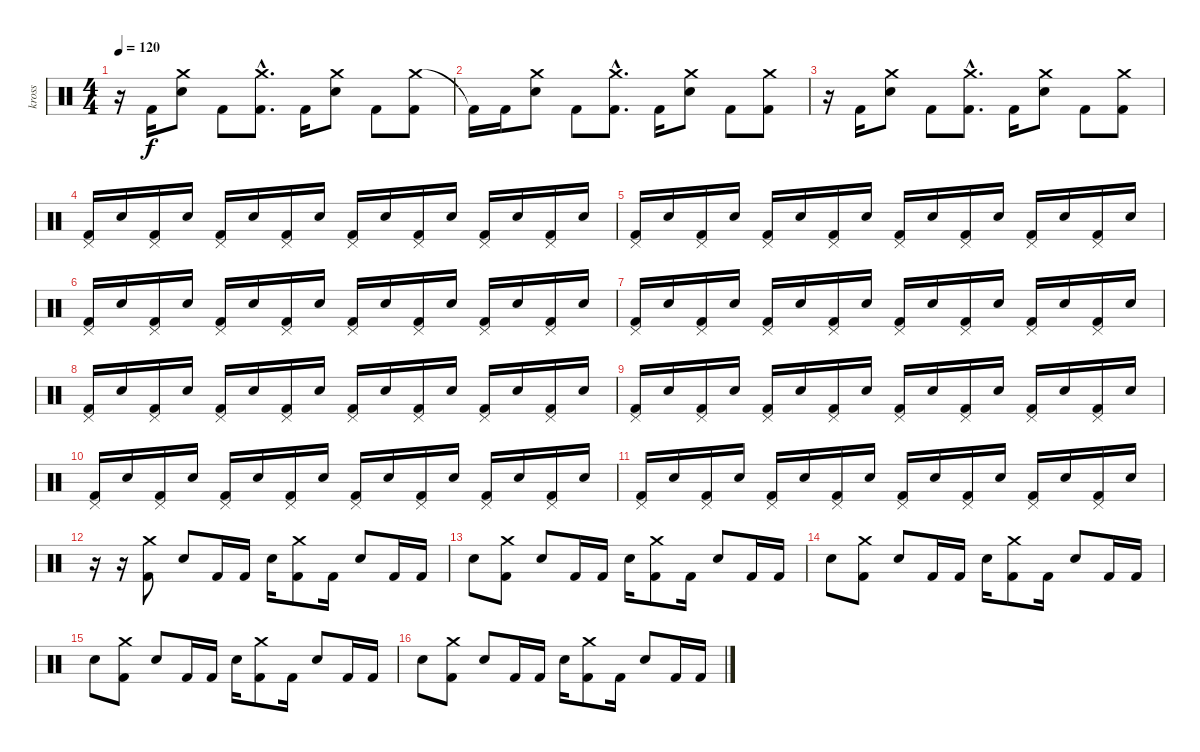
\track ("kross" "kross") {instrument percussion}
\staff {score}
\articulation defaults
\ts (4 4)
\tempo 120
\clef neutral
\ks c
r.16{dy f} "Kick (hit) 2".16 ("Crash medium (hit)" "Electric Snare (hit)").8 "Kick (hit) 2".8 ("Crash medium (hit)"{hac} "Kick (hit) 2"{hac}).8{d} "Kick (hit) 2".16 ("Crash medium (hit)" "Electric Snare (hit)").8 "Kick (hit) 2".8 ("Crash medium (hit)" "Kick (hit) 2").8 |
"Kick (hit) 2"{t}.16 "Kick (hit) 2".16 ("Crash medium (hit)" "Electric Snare (hit)").8 "Kick (hit) 2".8 ("Crash medium (hit)"{hac} "Kick (hit) 2"{hac}).8{d} "Kick (hit) 2".16 ("Crash medium (hit)" "Electric Snare (hit)").8 "Kick (hit) 2".8 ("Crash medium (hit)" "Kick (hit) 2").8 |
r.16 "Kick (hit) 2".16 ("Crash medium (hit)" "Electric Snare (hit)").8 "Kick (hit) 2".8 ("Crash medium (hit)"{hac} "Kick (hit) 2"{hac}).8{d} "Kick (hit) 2".16 ("Crash medium (hit)" "Electric Snare (hit)").8 "Kick (hit) 2".8 ("Crash medium (hit)" "Kick (hit) 2").8 |
("Pedal Hi-Hat (hit)" "Kick (hit) 2").16 "Electric Snare (hit)".16 ("Pedal Hi-Hat (hit)" "Kick (hit) 2").16 "Electric Snare (hit)".16 ("Pedal Hi-Hat (hit)" "Kick (hit) 2").16 "Electric Snare (hit)".16 ("Pedal Hi-Hat (hit)" "Kick (hit) 2").16 "Electric Snare (hit)".16 ("Pedal Hi-Hat (hit)" "Kick (hit) 2").16 "Electric Snare (hit)".16 ("Pedal Hi-Hat (hit)" "Kick (hit) 2").16 "Electric Snare (hit)".16 ("Pedal Hi-Hat (hit)" "Kick (hit) 2").16 "Electric Snare (hit)".16 ("Pedal Hi-Hat (hit)" "Kick (hit) 2").16 "Electric Snare (hit)".16 |
("Pedal Hi-Hat (hit)" "Kick (hit) 2").16 "Electric Snare (hit)".16 ("Pedal Hi-Hat (hit)" "Kick (hit) 2").16 "Electric Snare (hit)".16 ("Pedal Hi-Hat (hit)" "Kick (hit) 2").16 "Electric Snare (hit)".16 ("Pedal Hi-Hat (hit)" "Kick (hit) 2").16 "Electric Snare (hit)".16 ("Pedal Hi-Hat (hit)" "Kick (hit) 2").16 "Electric Snare (hit)".16 ("Pedal Hi-Hat (hit)" "Kick (hit) 2").16 "Electric Snare (hit)".16 ("Pedal Hi-Hat (hit)" "Kick (hit) 2").16 "Electric Snare (hit)".16 ("Pedal Hi-Hat (hit)" "Kick (hit) 2").16 "Electric Snare (hit)".16 |
("Pedal Hi-Hat (hit)" "Kick (hit) 2").16 "Electric Snare (hit)".16 ("Pedal Hi-Hat (hit)" "Kick (hit) 2").16 "Electric Snare (hit)".16 ("Pedal Hi-Hat (hit)" "Kick (hit) 2").16 "Electric Snare (hit)".16 ("Pedal Hi-Hat (hit)" "Kick (hit) 2").16 "Electric Snare (hit)".16 ("Pedal Hi-Hat (hit)" "Kick (hit) 2").16 "Electric Snare (hit)".16 ("Pedal Hi-Hat (hit)" "Kick (hit) 2").16 "Electric Snare (hit)".16 ("Pedal Hi-Hat (hit)" "Kick (hit) 2").16 "Electric Snare (hit)".16 ("Pedal Hi-Hat (hit)" "Kick (hit) 2").16 "Electric Snare (hit)".16 |
("Pedal Hi-Hat (hit)" "Kick (hit) 2").16 "Electric Snare (hit)".16 ("Pedal Hi-Hat (hit)" "Kick (hit) 2").16 "Electric Snare (hit)".16 ("Pedal Hi-Hat (hit)" "Kick (hit) 2").16 "Electric Snare (hit)".16 ("Pedal Hi-Hat (hit)" "Kick (hit) 2").16 "Electric Snare (hit)".16 ("Pedal Hi-Hat (hit)" "Kick (hit) 2").16 "Electric Snare (hit)".16 ("Pedal Hi-Hat (hit)" "Kick (hit) 2").16 "Electric Snare (hit)".16 ("Pedal Hi-Hat (hit)" "Kick (hit) 2").16 "Electric Snare (hit)".16 ("Pedal Hi-Hat (hit)" "Kick (hit) 2").16 "Electric Snare (hit)".16 |
("Pedal Hi-Hat (hit)" "Kick (hit) 2").16 "Electric Snare (hit)".16 ("Pedal Hi-Hat (hit)" "Kick (hit) 2").16 "Electric Snare (hit)".16 ("Pedal Hi-Hat (hit)" "Kick (hit) 2").16 "Electric Snare (hit)".16 ("Pedal Hi-Hat (hit)" "Kick (hit) 2").16 "Electric Snare (hit)".16 ("Pedal Hi-Hat (hit)" "Kick (hit) 2").16 "Electric Snare (hit)".16 ("Pedal Hi-Hat (hit)" "Kick (hit) 2").16 "Electric Snare (hit)".16 ("Pedal Hi-Hat (hit)" "Kick (hit) 2").16 "Electric Snare (hit)".16 ("Pedal Hi-Hat (hit)" "Kick (hit) 2").16 "Electric Snare (hit)".16 |
("Pedal Hi-Hat (hit)" "Kick (hit) 2").16 "Electric Snare (hit)".16 ("Pedal Hi-Hat (hit)" "Kick (hit) 2").16 "Electric Snare (hit)".16 ("Pedal Hi-Hat (hit)" "Kick (hit) 2").16 "Electric Snare (hit)".16 ("Pedal Hi-Hat (hit)" "Kick (hit) 2").16 "Electric Snare (hit)".16 ("Pedal Hi-Hat (hit)" "Kick (hit) 2").16 "Electric Snare (hit)".16 ("Pedal Hi-Hat (hit)" "Kick (hit) 2").16 "Electric Snare (hit)".16 ("Pedal Hi-Hat (hit)" "Kick (hit) 2").16 "Electric Snare (hit)".16 ("Pedal Hi-Hat (hit)" "Kick (hit) 2").16 "Electric Snare (hit)".16 |
("Pedal Hi-Hat (hit)" "Kick (hit) 2").16 "Electric Snare (hit)".16 ("Pedal Hi-Hat (hit)" "Kick (hit) 2").16 "Electric Snare (hit)".16 ("Pedal Hi-Hat (hit)" "Kick (hit) 2").16 "Electric Snare (hit)".16 ("Pedal Hi-Hat (hit)" "Kick (hit) 2").16 "Electric Snare (hit)".16 ("Pedal Hi-Hat (hit)" "Kick (hit) 2").16 "Electric Snare (hit)".16 ("Pedal Hi-Hat (hit)" "Kick (hit) 2").16 "Electric Snare (hit)".16 ("Pedal Hi-Hat (hit)" "Kick (hit) 2").16 "Electric Snare (hit)".16 ("Pedal Hi-Hat (hit)" "Kick (hit) 2").16 "Electric Snare (hit)".16 |
("Pedal Hi-Hat (hit)" "Kick (hit) 2").16 "Electric Snare (hit)".16 ("Pedal Hi-Hat (hit)" "Kick (hit) 2").16 "Electric Snare (hit)".16 ("Pedal Hi-Hat (hit)" "Kick (hit) 2").16 "Electric Snare (hit)".16 ("Pedal Hi-Hat (hit)" "Kick (hit) 2").16 "Electric Snare (hit)".16 ("Pedal Hi-Hat (hit)" "Kick (hit) 2").16 "Electric Snare (hit)".16 ("Pedal Hi-Hat (hit)" "Kick (hit) 2").16 "Electric Snare (hit)".16 ("Pedal Hi-Hat (hit)" "Kick (hit) 2").16 "Electric Snare (hit)".16 ("Pedal Hi-Hat (hit)" "Kick (hit) 2").16 "Electric Snare (hit)".16 |
r.16 r.16 ("Crash medium (hit)" "Kick (hit) 2").8 "Electric Snare (hit)".8 "Kick (hit) 2".16 "Kick (hit) 2".16 "Electric Snare (hit)".16 ("Crash medium (hit)" "Kick (hit) 2").8 "Kick (hit) 2".16 "Electric Snare (hit)".8 "Kick (hit) 2".16 "Kick (hit) 2".16 |
"Electric Snare (hit)".8 ("Crash medium (hit)" "Kick (hit) 2").8 "Electric Snare (hit)".8 "Kick (hit) 2".16 "Kick (hit) 2".16 "Electric Snare (hit)".16 ("Crash medium (hit)" "Kick (hit) 2").8 "Kick (hit) 2".16 "Electric Snare (hit)".8 "Kick (hit) 2".16 "Kick (hit) 2".16 |
"Electric Snare (hit)".8 ("Crash medium (hit)" "Kick (hit) 2").8 "Electric Snare (hit)".8 "Kick (hit) 2".16 "Kick (hit) 2".16 "Electric Snare (hit)".16 ("Crash medium (hit)" "Kick (hit) 2").8 "Kick (hit) 2".16 "Electric Snare (hit)".8 "Kick (hit) 2".16 "Kick (hit) 2".16 |
"Electric Snare (hit)".8 ("Crash medium (hit)" "Kick (hit) 2").8 "Electric Snare (hit)".8 "Kick (hit) 2".16 "Kick (hit) 2".16 "Electric Snare (hit)".16 ("Crash medium (hit)" "Kick (hit) 2").8 "Kick (hit) 2".16 "Electric Snare (hit)".8 "Kick (hit) 2".16 "Kick (hit) 2".16 |
"Electric Snare (hit)".8 ("Crash medium (hit)" "Kick (hit) 2").8 "Electric Snare (hit)".8 "Kick (hit) 2".16 "Kick (hit) 2".16 "Electric Snare (hit)".16 ("Crash medium (hit)" "Kick (hit) 2").8 "Kick (hit) 2".16 "Electric Snare (hit)".8 "Kick (hit) 2".16 "Kick (hit) 2".16
